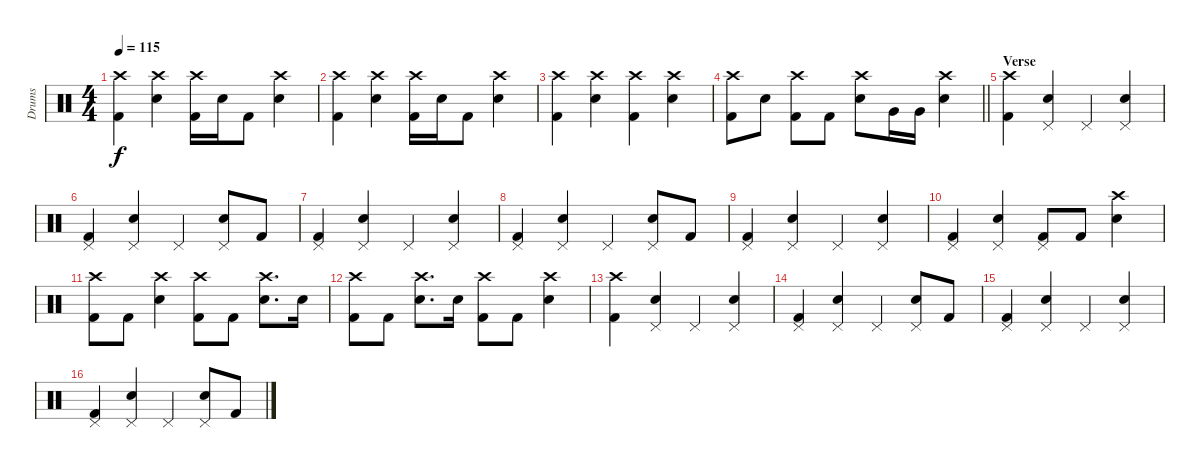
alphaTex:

\track ("Drums" "Drums") {instrument percussion}
\staff {score}
\articulation defaults
\ts (4 4)
\tempo 115
\clef neutral
\ks c
("Crash high (hit)" "Kick (hit) 2").4{dy f} ("Crash high (hit)" "Snare (hit) 2").4 ("Crash high (hit)" "Kick (hit) 2").16 "Snare (hit) 2".16 "Kick (hit) 2".8 ("Crash high (hit)" "Snare (hit) 2").4 |
("Crash high (hit)" "Kick (hit) 2").4 ("Crash high (hit)" "Snare (hit) 2").4 ("Crash high (hit)" "Kick (hit) 2").16 "Snare (hit) 2".16 "Kick (hit) 2".8 ("Crash high (hit)" "Snare (hit) 2").4 |
("Crash high (hit)" "Kick (hit) 2").4 ("Crash high (hit)" "Snare (hit) 2").4 ("Crash high (hit)" "Kick (hit) 2").4 ("Crash high (hit)" "Snare (hit) 2").4 |
\barLineRight lightlight
("Crash high (hit)" "Kick (hit) 2").8 "Snare (hit) 2".8 ("Crash high (hit)" "Kick (hit) 2").8 "Kick (hit) 2".8 ("Crash high (hit)" "Snare (hit) 2").8 "Very Low Tom (hit)".16 "Very Low Tom (hit)".16 ("Crash high (hit)" "Snare (hit) 2").4 |
\section ("" "Verse")
("Crash high (hit)" "Kick (hit) 2").4 ("Pedal Hi-Hat (hit)" "Snare (hit) 2").4 "Pedal Hi-Hat (hit)".4 ("Pedal Hi-Hat (hit)" "Snare (hit) 2").4 |
("Pedal Hi-Hat (hit)" "Kick (hit) 2").4 ("Pedal Hi-Hat (hit)" "Snare (hit) 2").4 "Pedal Hi-Hat (hit)".4 ("Pedal Hi-Hat (hit)" "Snare (hit) 2").8 "Kick (hit) 2".8 |
("Pedal Hi-Hat (hit)" "Kick (hit) 2").4 ("Pedal Hi-Hat (hit)" "Snare (hit) 2").4 "Pedal Hi-Hat (hit)".4 ("Pedal Hi-Hat (hit)" "Snare (hit) 2").4 |
("Pedal Hi-Hat (hit)" "Kick (hit) 2").4 ("Pedal Hi-Hat (hit)" "Snare (hit) 2").4 "Pedal Hi-Hat (hit)".4 ("Pedal Hi-Hat (hit)" "Snare (hit) 2").8 "Kick (hit) 2".8 |
("Pedal Hi-Hat (hit)" "Kick (hit) 2").4 ("Pedal Hi-Hat (hit)" "Snare (hit) 2").4 "Pedal Hi-Hat (hit)".4 ("Pedal Hi-Hat (hit)" "Snare (hit) 2").4 |
("Pedal Hi-Hat (hit)" "Kick (hit) 2").4 ("Pedal Hi-Hat (hit)" "Snare (hit) 2").4 ("Pedal Hi-Hat (hit)" "Kick (hit) 2").8 "Kick (hit) 2".8 ("Crash high (hit)" "Snare (hit) 2").4 |
("Crash high (hit)" "Kick (hit) 2").8 "Kick (hit) 2".8 ("Crash high (hit)" "Snare (hit) 2").4 ("Crash high (hit)" "Kick (hit) 2").8 "Kick (hit) 2".8 ("Crash high (hit)" "Snare (hit) 2").8{d} "Snare (hit) 2".16 |
("Crash high (hit)" "Kick (hit) 2").8 "Kick (hit) 2".8 ("Crash high (hit)" "Snare (hit) 2").8{d} "Snare (hit) 2".16 ("Crash high (hit)" "Kick (hit) 2").8 "Kick (hit) 2".8 ("Crash high (hit)" "Snare (hit) 2").4 |
("Crash high (hit)" "Kick (hit) 2").4 ("Pedal Hi-Hat (hit)" "Snare (hit) 2").4 "Pedal Hi-Hat (hit)".4 ("Pedal Hi-Hat (hit)" "Snare (hit) 2").4 |
("Pedal Hi-Hat (hit)" "Kick (hit) 2").4 ("Pedal Hi-Hat (hit)" "Snare (hit) 2").4 "Pedal Hi-Hat (hit)".4 ("Pedal Hi-Hat (hit)" "Snare (hit) 2").8 "Kick (hit) 2".8 |
("Pedal Hi-Hat (hit)" "Kick (hit) 2").4 ("Pedal Hi-Hat (hit)" "Snare (hit) 2").4 "Pedal Hi-Hat (hit)".4 ("Pedal Hi-Hat (hit)" "Snare (hit) 2").4 |
("Pedal Hi-Hat (hit)" "Kick (hit) 2").4 ("Pedal Hi-Hat (hit)" "Snare (hit) 2").4 "Pedal Hi-Hat (hit)".4 ("Pedal Hi-Hat (hit)" "Snare (hit) 2").8 "Kick (hit) 2".8
